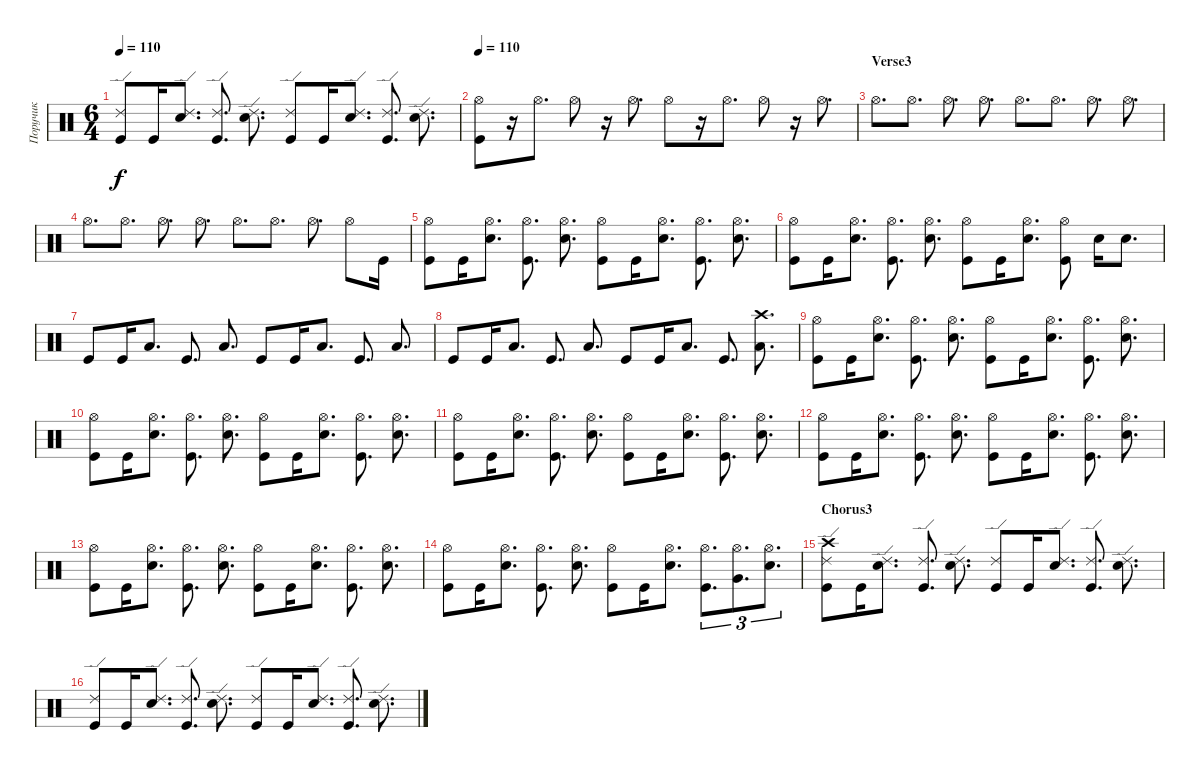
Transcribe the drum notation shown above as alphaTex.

\track ("Поручик" "Поручик") {instrument percussion}
\staff {score}
\articulation defaults
\ts (6 4)
\tempo 110
\clef neutral
\ks c
("Ride (edge) 2" "Kick (hit)").8{dy f} "Kick (hit)".16 ("Ride (edge) 2" "Snare (hit) 2").8{d} ("Ride (edge) 2" "Kick (hit)").8{d} ("Ride (edge) 2" "Snare (hit) 2").8{d} ("Ride (edge) 2" "Kick (hit)").8 "Kick (hit)".16 ("Ride (edge) 2" "Snare (hit) 2").8{d} ("Ride (edge) 2" "Kick (hit)").8{d} ("Ride (edge) 2" "Snare (hit) 2").8{d} |
\tempo 110
("Hi-Hat (open)" "Kick (hit)").8 r.16 "Hi-Hat (open)".8{d} "Hi-Hat (open)".8 r.16 "Hi-Hat (open)".8{d} "Hi-Hat (open)".8 r.16 "Hi-Hat (open)".8{d} "Hi-Hat (open)".8 r.16 "Hi-Hat (open)".8{d} |
\section ("" "Verse3")
"Hi-Hat (open)".8{d} "Hi-Hat (open)".8{d} "Hi-Hat (open)".8{d} "Hi-Hat (open)".8{d} "Hi-Hat (open)".8{d} "Hi-Hat (open)".8{d} "Hi-Hat (open)".8{d} "Hi-Hat (open)".8{d} |
"Hi-Hat (open)".8{d} "Hi-Hat (open)".8{d} "Hi-Hat (open)".8{d} "Hi-Hat (open)".8{d} "Hi-Hat (open)".8{d} "Hi-Hat (open)".8{d} "Hi-Hat (open)".8{d} "Hi-Hat (open)".8 "Kick (hit)".16 |
("Hi-Hat (open)" "Kick (hit)").8 "Kick (hit)".16 ("Hi-Hat (open)" "Snare (hit) 2").8{d} ("Hi-Hat (open)" "Kick (hit)").8{d} ("Hi-Hat (open)" "Snare (hit) 2").8{d} ("Hi-Hat (open)" "Kick (hit)").8 "Kick (hit)".16 ("Hi-Hat (open)" "Snare (hit) 2").8{d} ("Hi-Hat (open)" "Kick (hit)").8{d} ("Hi-Hat (open)" "Snare (hit) 2").8{d} |
("Hi-Hat (open)" "Kick (hit)").8 "Kick (hit)".16 ("Hi-Hat (open)" "Snare (hit) 2").8{d} ("Hi-Hat (open)" "Kick (hit)").8{d} ("Hi-Hat (open)" "Snare (hit) 2").8{d} ("Hi-Hat (open)" "Kick (hit)").8 "Kick (hit)".16 ("Hi-Hat (open)" "Snare (hit) 2").8{d} ("Hi-Hat (open)" "Kick (hit)").8 "Snare (hit) 2".16 "Snare (hit) 2".8{d} |
"Kick (hit)".8 "Kick (hit)".16 "Low Floor Tom (hit)".8{d} "Kick (hit)".8{d} "Low Floor Tom (hit)".8{d} "Kick (hit)".8 "Kick (hit)".16 "Low Floor Tom (hit)".8{d} "Kick (hit)".8{d} "Low Floor Tom (hit)".8{d} |
"Kick (hit)".8 "Kick (hit)".16 "Low Floor Tom (hit)".8{d} "Kick (hit)".8{d} "Low Floor Tom (hit)".8{d} "Kick (hit)".8 "Kick (hit)".16 "Low Floor Tom (hit)".8{d} "Kick (hit)".8{d} ("Low Floor Tom (hit)" "Crash high (hit)").8{d} |
("Hi-Hat (open)" "Kick (hit)").8 "Kick (hit)".16 ("Hi-Hat (open)" "Snare (hit) 2").8{d} ("Hi-Hat (open)" "Kick (hit)").8{d} ("Hi-Hat (open)" "Snare (hit) 2").8{d} ("Hi-Hat (open)" "Kick (hit)").8 "Kick (hit)".16 ("Hi-Hat (open)" "Snare (hit) 2").8{d} ("Hi-Hat (open)" "Kick (hit)").8{d} ("Hi-Hat (open)" "Snare (hit) 2").8{d} |
("Hi-Hat (open)" "Kick (hit)").8 "Kick (hit)".16 ("Hi-Hat (open)" "Snare (hit) 2").8{d} ("Hi-Hat (open)" "Kick (hit)").8{d} ("Hi-Hat (open)" "Snare (hit) 2").8{d} ("Hi-Hat (open)" "Kick (hit)").8 "Kick (hit)".16 ("Hi-Hat (open)" "Snare (hit) 2").8{d} ("Hi-Hat (open)" "Kick (hit)").8{d} ("Hi-Hat (open)" "Snare (hit) 2").8{d} |
("Hi-Hat (open)" "Kick (hit)").8 "Kick (hit)".16 ("Hi-Hat (open)" "Snare (hit) 2").8{d} ("Hi-Hat (open)" "Kick (hit)").8{d} ("Hi-Hat (open)" "Snare (hit) 2").8{d} ("Hi-Hat (open)" "Kick (hit)").8 "Kick (hit)".16 ("Hi-Hat (open)" "Snare (hit) 2").8{d} ("Hi-Hat (open)" "Kick (hit)").8{d} ("Hi-Hat (open)" "Snare (hit) 2").8{d} |
("Hi-Hat (open)" "Kick (hit)").8 "Kick (hit)".16 ("Hi-Hat (open)" "Snare (hit) 2").8{d} ("Hi-Hat (open)" "Kick (hit)").8{d} ("Hi-Hat (open)" "Snare (hit) 2").8{d} ("Hi-Hat (open)" "Kick (hit)").8 "Kick (hit)".16 ("Hi-Hat (open)" "Snare (hit) 2").8{d} ("Hi-Hat (open)" "Kick (hit)").8{d} ("Hi-Hat (open)" "Snare (hit) 2").8{d} |
("Hi-Hat (open)" "Kick (hit)").8 "Kick (hit)".16 ("Hi-Hat (open)" "Snare (hit) 2").8{d} ("Hi-Hat (open)" "Kick (hit)").8{d} ("Hi-Hat (open)" "Snare (hit) 2").8{d} ("Hi-Hat (open)" "Kick (hit)").8 "Kick (hit)".16 ("Hi-Hat (open)" "Snare (hit) 2").8{d} ("Hi-Hat (open)" "Kick (hit)").8{d} ("Hi-Hat (open)" "Snare (hit) 2").8{d} |
("Hi-Hat (open)" "Kick (hit)").8 "Kick (hit)".16 ("Hi-Hat (open)" "Snare (hit) 2").8{d} ("Hi-Hat (open)" "Kick (hit)").8{d} ("Hi-Hat (open)" "Snare (hit) 2").8{d} ("Hi-Hat (open)" "Kick (hit)").8 "Kick (hit)".16 ("Hi-Hat (open)" "Snare (hit) 2").8{d} ("Hi-Hat (open)" "Kick (hit)").8{d tu (3 2)} ("Hi-Hat (open)" "Very Low Tom (hit)").8{d tu (3 2)} ("Hi-Hat (open)" "Snare (hit) 2").8{d tu (3 2)} |
\section ("" "Chorus3")
("Ride (edge) 2" "Kick (hit)" "Crash high (hit)").8 "Kick (hit)".16 ("Ride (edge) 2" "Snare (hit) 2").8{d} ("Ride (edge) 2" "Kick (hit)").8{d} ("Ride (edge) 2" "Snare (hit) 2").8{d} ("Ride (edge) 2" "Kick (hit)").8 "Kick (hit)".16 ("Ride (edge) 2" "Snare (hit) 2").8{d} ("Ride (edge) 2" "Kick (hit)").8{d} ("Ride (edge) 2" "Snare (hit) 2").8{d} |
("Ride (edge) 2" "Kick (hit)").8 "Kick (hit)".16 ("Ride (edge) 2" "Snare (hit) 2").8{d} ("Ride (edge) 2" "Kick (hit)").8{d} ("Ride (edge) 2" "Snare (hit) 2").8{d} ("Ride (edge) 2" "Kick (hit)").8 "Kick (hit)".16 ("Ride (edge) 2" "Snare (hit) 2").8{d} ("Ride (edge) 2" "Kick (hit)").8{d} ("Ride (edge) 2" "Snare (hit) 2").8{d}
